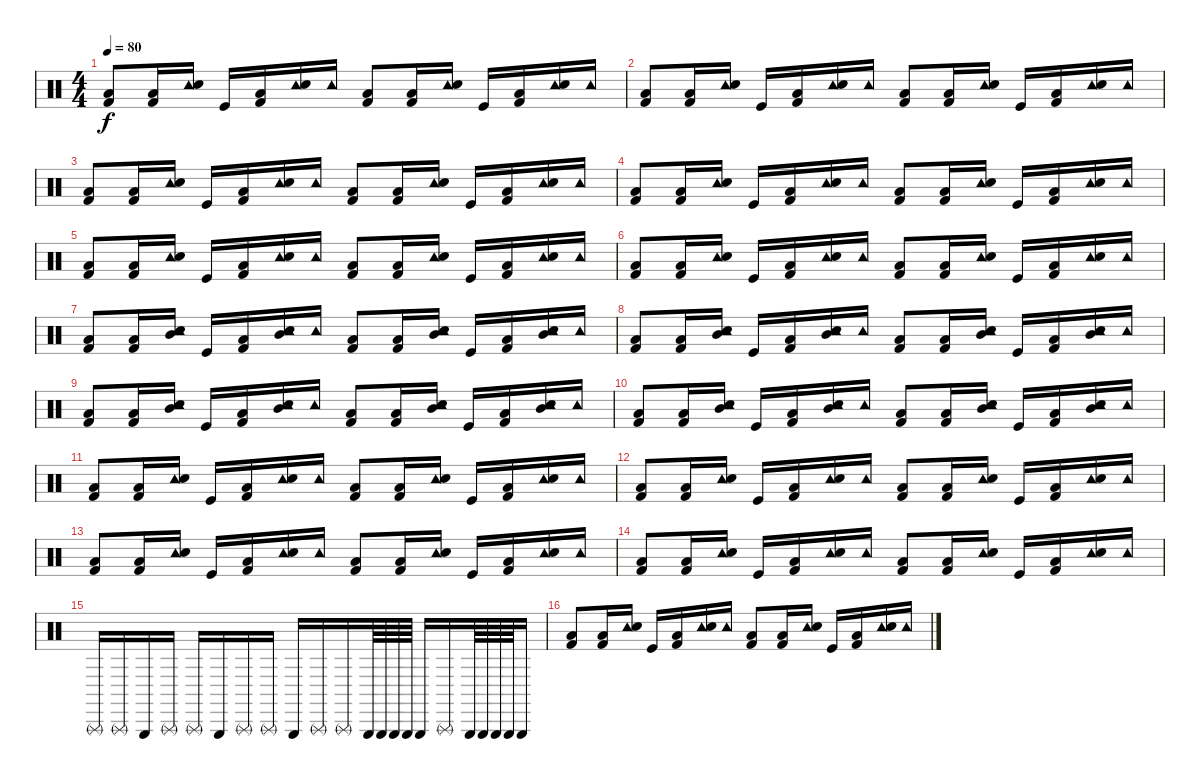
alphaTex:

\track "" {instrument percussion}
\staff {score}
\articulation defaults
\ts (4 4)
\tempo 80
\clef neutral
\ks c
("Kick (hit) 2" "Low Floor Tom (hit)").8{dy f} ("Kick (hit) 2" "Low Floor Tom (hit)").16 ("Tambourine (hit)" "Electric Snare (hit)").16 "Kick (hit)".16 ("Kick (hit) 2" "Low Floor Tom (hit)").16 ("Tambourine (hit)" "Electric Snare (hit)").16 "Tambourine (hit)".16 ("Kick (hit) 2" "Low Floor Tom (hit)").8 ("Kick (hit) 2" "Low Floor Tom (hit)").16 ("Tambourine (hit)" "Electric Snare (hit)").16 "Kick (hit)".16 ("Kick (hit) 2" "Low Floor Tom (hit)").16 ("Tambourine (hit)" "Electric Snare (hit)").16 "Tambourine (hit)".16 |
("Kick (hit) 2" "Low Floor Tom (hit)").8 ("Kick (hit) 2" "Low Floor Tom (hit)").16 ("Tambourine (hit)" "Electric Snare (hit)").16 "Kick (hit)".16 ("Kick (hit) 2" "Low Floor Tom (hit)").16 ("Tambourine (hit)" "Electric Snare (hit)").16 "Tambourine (hit)".16 ("Kick (hit) 2" "Low Floor Tom (hit)").8 ("Kick (hit) 2" "Low Floor Tom (hit)").16 ("Tambourine (hit)" "Electric Snare (hit)").16 "Kick (hit)".16 ("Kick (hit) 2" "Low Floor Tom (hit)").16 ("Tambourine (hit)" "Electric Snare (hit)").16 "Tambourine (hit)".16 |
("Kick (hit) 2" "Low Floor Tom (hit)").8 ("Kick (hit) 2" "Low Floor Tom (hit)").16 ("Tambourine (hit)" "Electric Snare (hit)").16 "Kick (hit)".16 ("Kick (hit) 2" "Low Floor Tom (hit)").16 ("Tambourine (hit)" "Electric Snare (hit)").16 "Tambourine (hit)".16 ("Kick (hit) 2" "Low Floor Tom (hit)").8 ("Kick (hit) 2" "Low Floor Tom (hit)").16 ("Tambourine (hit)" "Electric Snare (hit)").16 "Kick (hit)".16 ("Kick (hit) 2" "Low Floor Tom (hit)").16 ("Tambourine (hit)" "Electric Snare (hit)").16 "Tambourine (hit)".16 |
("Kick (hit) 2" "Low Floor Tom (hit)").8 ("Kick (hit) 2" "Low Floor Tom (hit)").16 ("Tambourine (hit)" "Electric Snare (hit)").16 "Kick (hit)".16 ("Kick (hit) 2" "Low Floor Tom (hit)").16 ("Tambourine (hit)" "Electric Snare (hit)").16 "Tambourine (hit)".16 ("Kick (hit) 2" "Low Floor Tom (hit)").8 ("Kick (hit) 2" "Low Floor Tom (hit)").16 ("Tambourine (hit)" "Electric Snare (hit)").16 "Kick (hit)".16 ("Kick (hit) 2" "Low Floor Tom (hit)").16 ("Tambourine (hit)" "Electric Snare (hit)").16 "Tambourine (hit)".16 |
("Kick (hit) 2" "Low Floor Tom (hit)").8 ("Kick (hit) 2" "Low Floor Tom (hit)").16 ("Tambourine (hit)" "Electric Snare (hit)").16 "Kick (hit)".16 ("Kick (hit) 2" "Low Floor Tom (hit)").16 ("Tambourine (hit)" "Electric Snare (hit)").16 "Tambourine (hit)".16 ("Kick (hit) 2" "Low Floor Tom (hit)").8 ("Kick (hit) 2" "Low Floor Tom (hit)").16 ("Tambourine (hit)" "Electric Snare (hit)").16 "Kick (hit)".16 ("Kick (hit) 2" "Low Floor Tom (hit)").16 ("Tambourine (hit)" "Electric Snare (hit)").16 "Tambourine (hit)".16 |
("Kick (hit) 2" "Low Floor Tom (hit)").8 ("Kick (hit) 2" "Low Floor Tom (hit)").16 ("Tambourine (hit)" "Electric Snare (hit)").16 "Kick (hit)".16 ("Kick (hit) 2" "Low Floor Tom (hit)").16 ("Tambourine (hit)" "Electric Snare (hit)").16 "Tambourine (hit)".16 ("Kick (hit) 2" "Low Floor Tom (hit)").8 ("Kick (hit) 2" "Low Floor Tom (hit)").16 ("Tambourine (hit)" "Electric Snare (hit)").16 "Kick (hit)".16 ("Kick (hit) 2" "Low Floor Tom (hit)").16 ("Tambourine (hit)" "Electric Snare (hit)").16 "Tambourine (hit)".16 |
("Kick (hit) 2" "Low Floor Tom (hit)").8 ("Kick (hit) 2" "Low Floor Tom (hit)").16 ("Tambourine (hit)" "Electric Snare (hit)" "Mid Tom (hit)").16 "Kick (hit)".16 ("Kick (hit) 2" "Low Floor Tom (hit)").16 ("Tambourine (hit)" "Electric Snare (hit)" "Mid Tom (hit)").16 "Tambourine (hit)".16 ("Kick (hit) 2" "Low Floor Tom (hit)").8 ("Kick (hit) 2" "Low Floor Tom (hit)").16 ("Tambourine (hit)" "Electric Snare (hit)" "Mid Tom (hit)").16 "Kick (hit)".16 ("Kick (hit) 2" "Low Floor Tom (hit)").16 ("Tambourine (hit)" "Electric Snare (hit)" "Mid Tom (hit)").16 "Tambourine (hit)".16 |
("Kick (hit) 2" "Low Floor Tom (hit)").8 ("Kick (hit) 2" "Low Floor Tom (hit)").16 ("Tambourine (hit)" "Electric Snare (hit)" "Mid Tom (hit)").16 "Kick (hit)".16 ("Kick (hit) 2" "Low Floor Tom (hit)").16 ("Tambourine (hit)" "Electric Snare (hit)" "Mid Tom (hit)").16 "Tambourine (hit)".16 ("Kick (hit) 2" "Low Floor Tom (hit)").8 ("Kick (hit) 2" "Low Floor Tom (hit)").16 ("Tambourine (hit)" "Electric Snare (hit)" "Mid Tom (hit)").16 "Kick (hit)".16 ("Kick (hit) 2" "Low Floor Tom (hit)").16 ("Tambourine (hit)" "Electric Snare (hit)" "Mid Tom (hit)").16 "Tambourine (hit)".16 |
("Kick (hit) 2" "Low Floor Tom (hit)").8 ("Kick (hit) 2" "Low Floor Tom (hit)").16 ("Tambourine (hit)" "Electric Snare (hit)" "Mid Tom (hit)").16 "Kick (hit)".16 ("Kick (hit) 2" "Low Floor Tom (hit)").16 ("Tambourine (hit)" "Electric Snare (hit)" "Mid Tom (hit)").16 "Tambourine (hit)".16 ("Kick (hit) 2" "Low Floor Tom (hit)").8 ("Kick (hit) 2" "Low Floor Tom (hit)").16 ("Tambourine (hit)" "Electric Snare (hit)" "Mid Tom (hit)").16 "Kick (hit)".16 ("Kick (hit) 2" "Low Floor Tom (hit)").16 ("Tambourine (hit)" "Electric Snare (hit)" "Mid Tom (hit)").16 "Tambourine (hit)".16 |
("Kick (hit) 2" "Low Floor Tom (hit)").8 ("Kick (hit) 2" "Low Floor Tom (hit)").16 ("Tambourine (hit)" "Electric Snare (hit)" "Mid Tom (hit)").16 "Kick (hit)".16 ("Kick (hit) 2" "Low Floor Tom (hit)").16 ("Tambourine (hit)" "Electric Snare (hit)" "Mid Tom (hit)").16 "Tambourine (hit)".16 ("Kick (hit) 2" "Low Floor Tom (hit)").8 ("Kick (hit) 2" "Low Floor Tom (hit)").16 ("Tambourine (hit)" "Electric Snare (hit)" "Mid Tom (hit)").16 "Kick (hit)".16 ("Kick (hit) 2" "Low Floor Tom (hit)").16 ("Tambourine (hit)" "Electric Snare (hit)" "Mid Tom (hit)").16 "Tambourine (hit)".16 |
("Kick (hit) 2" "Low Floor Tom (hit)").8 ("Kick (hit) 2" "Low Floor Tom (hit)").16 ("Tambourine (hit)" "Electric Snare (hit)").16 "Kick (hit)".16 ("Kick (hit) 2" "Low Floor Tom (hit)").16 ("Tambourine (hit)" "Electric Snare (hit)").16 "Tambourine (hit)".16 ("Kick (hit) 2" "Low Floor Tom (hit)").8 ("Kick (hit) 2" "Low Floor Tom (hit)").16 ("Tambourine (hit)" "Electric Snare (hit)").16 "Kick (hit)".16 ("Kick (hit) 2" "Low Floor Tom (hit)").16 ("Tambourine (hit)" "Electric Snare (hit)").16 "Tambourine (hit)".16 |
("Kick (hit) 2" "Low Floor Tom (hit)").8 ("Kick (hit) 2" "Low Floor Tom (hit)").16 ("Tambourine (hit)" "Electric Snare (hit)").16 "Kick (hit)".16 ("Kick (hit) 2" "Low Floor Tom (hit)").16 ("Tambourine (hit)" "Electric Snare (hit)").16 "Tambourine (hit)".16 ("Kick (hit) 2" "Low Floor Tom (hit)").8 ("Kick (hit) 2" "Low Floor Tom (hit)").16 ("Tambourine (hit)" "Electric Snare (hit)").16 "Kick (hit)".16 ("Kick (hit) 2" "Low Floor Tom (hit)").16 ("Tambourine (hit)" "Electric Snare (hit)").16 "Tambourine (hit)".16 |
("Kick (hit) 2" "Low Floor Tom (hit)").8 ("Kick (hit) 2" "Low Floor Tom (hit)").16 ("Tambourine (hit)" "Electric Snare (hit)").16 "Kick (hit)".16 ("Kick (hit) 2" "Low Floor Tom (hit)").16 ("Tambourine (hit)" "Electric Snare (hit)").16 "Tambourine (hit)".16 ("Kick (hit) 2" "Low Floor Tom (hit)").8 ("Kick (hit) 2" "Low Floor Tom (hit)").16 ("Tambourine (hit)" "Electric Snare (hit)").16 "Kick (hit)".16 ("Kick (hit) 2" "Low Floor Tom (hit)").16 ("Tambourine (hit)" "Electric Snare (hit)").16 "Tambourine (hit)".16 |
("Kick (hit) 2" "Low Floor Tom (hit)").8 ("Kick (hit) 2" "Low Floor Tom (hit)").16 ("Tambourine (hit)" "Electric Snare (hit)").16 "Kick (hit)".16 ("Kick (hit) 2" "Low Floor Tom (hit)").16 ("Tambourine (hit)" "Electric Snare (hit)").16 "Tambourine (hit)".16 ("Kick (hit) 2" "Low Floor Tom (hit)").8 ("Kick (hit) 2" "Low Floor Tom (hit)").16 ("Tambourine (hit)" "Electric Snare (hit)").16 "Kick (hit)".16 ("Kick (hit) 2" "Low Floor Tom (hit)").16 ("Tambourine (hit)" "Electric Snare (hit)").16 "Tambourine (hit)".16 |
"Triangle (rnute)".16 "Triangle (rnute)".16 "Triangle (hit)".16 "Triangle (rnute)".16 "Triangle (rnute)".16 "Triangle (hit)".16 "Triangle (rnute)".16 "Triangle (rnute)".16 "Triangle (hit)".16 "Triangle (rnute)".16 "Triangle (rnute)".16 "Triangle (hit)".64 "Triangle (hit)".64 "Triangle (hit)".64 "Triangle (hit)".64 "Triangle (hit)".16 "Triangle (rnute)".16 "Triangle (hit)".64 "Triangle (hit)".64 "Triangle (hit)".64 "Triangle (hit)".64 "Triangle (hit)".16 |
("Kick (hit) 2" "Low Floor Tom (hit)").8 ("Kick (hit) 2" "Low Floor Tom (hit)").16 ("Tambourine (hit)" "Electric Snare (hit)").16 "Kick (hit)".16 ("Kick (hit) 2" "Low Floor Tom (hit)").16 ("Tambourine (hit)" "Electric Snare (hit)").16 "Tambourine (hit)".16 ("Kick (hit) 2" "Low Floor Tom (hit)").8 ("Kick (hit) 2" "Low Floor Tom (hit)").16 ("Tambourine (hit)" "Electric Snare (hit)").16 "Kick (hit)".16 ("Kick (hit) 2" "Low Floor Tom (hit)").16 ("Tambourine (hit)" "Electric Snare (hit)").16 "Tambourine (hit)".16
